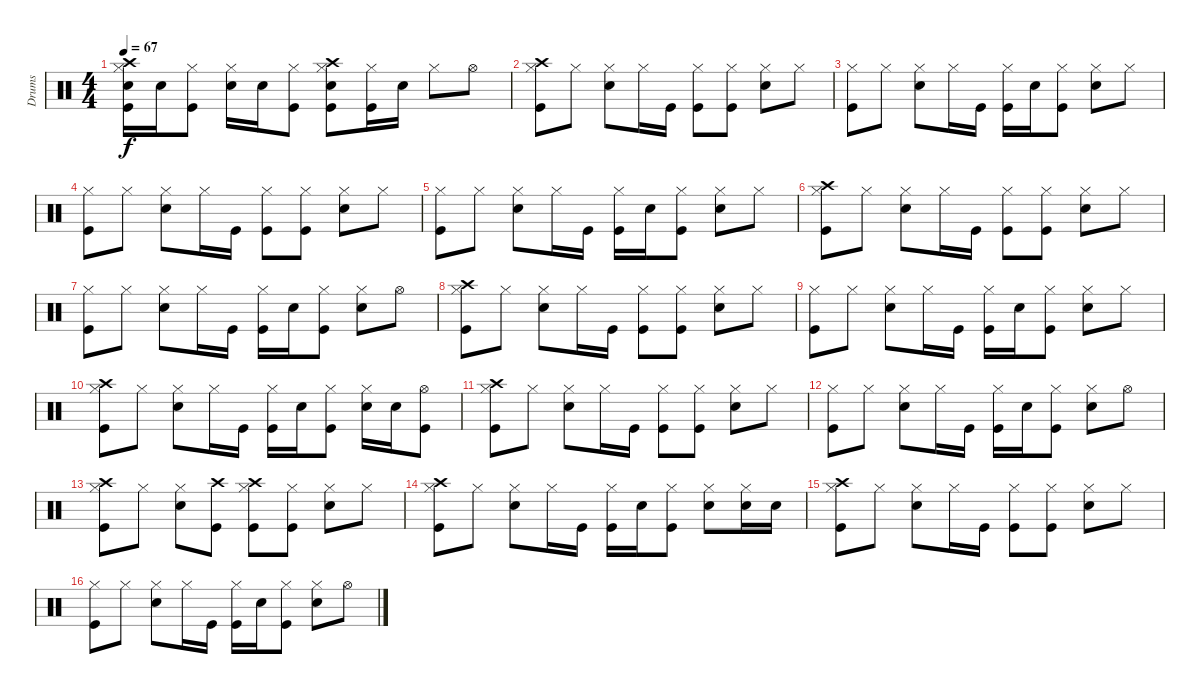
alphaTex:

\track ("Drums" "Drums") {instrument percussion}
\staff {score}
\articulation defaults
\ts (4 4)
\tempo 67
\clef neutral
\ks c
("Crash high (hit)" "Hi-Hat (closed)" "Electric Snare (hit)" "Kick (hit)").16{dy f} "Electric Snare (hit)".16 ("Hi-Hat (closed)" "Kick (hit)").8 ("Hi-Hat (closed)" "Electric Snare (hit)").16 "Electric Snare (hit)".16 ("Hi-Hat (closed)" "Kick (hit)").8 ("Crash high (hit)" "Hi-Hat (closed)" "Electric Snare (hit)" "Kick (hit)").8 ("Hi-Hat (closed)" "Kick (hit)").16 "Electric Snare (hit)".16 "Hi-Hat (closed)".8 "Hi-Hat (open)".8 |
("Crash high (hit)" "Hi-Hat (closed)" "Kick (hit)").8 "Hi-Hat (closed)".8 ("Hi-Hat (closed)" "Electric Snare (hit)").8 "Hi-Hat (closed)".16 "Kick (hit)".16 ("Hi-Hat (closed)" "Kick (hit)").8 ("Hi-Hat (closed)" "Kick (hit)").8 ("Hi-Hat (closed)" "Electric Snare (hit)").8 "Hi-Hat (closed)".8 |
("Hi-Hat (closed)" "Kick (hit)").8 "Hi-Hat (closed)".8 ("Hi-Hat (closed)" "Electric Snare (hit)").8 "Hi-Hat (closed)".16 "Kick (hit)".16 ("Hi-Hat (closed)" "Kick (hit)").16 "Electric Snare (hit)".16 ("Hi-Hat (closed)" "Kick (hit)").8 ("Hi-Hat (closed)" "Electric Snare (hit)").8 "Hi-Hat (closed)".8 |
("Hi-Hat (closed)" "Kick (hit)").8 "Hi-Hat (closed)".8 ("Hi-Hat (closed)" "Electric Snare (hit)").8 "Hi-Hat (closed)".16 "Kick (hit)".16 ("Hi-Hat (closed)" "Kick (hit)").8 ("Hi-Hat (closed)" "Kick (hit)").8 ("Hi-Hat (closed)" "Electric Snare (hit)").8 "Hi-Hat (closed)".8 |
("Hi-Hat (closed)" "Kick (hit)").8 "Hi-Hat (closed)".8 ("Hi-Hat (closed)" "Electric Snare (hit)").8 "Hi-Hat (closed)".16 "Kick (hit)".16 ("Hi-Hat (closed)" "Kick (hit)").16 "Electric Snare (hit)".16 ("Hi-Hat (closed)" "Kick (hit)").8 ("Hi-Hat (closed)" "Electric Snare (hit)").8 "Hi-Hat (closed)".8 |
("Crash high (hit)" "Hi-Hat (closed)" "Kick (hit)").8 "Hi-Hat (closed)".8 ("Hi-Hat (closed)" "Electric Snare (hit)").8 "Hi-Hat (closed)".16 "Kick (hit)".16 ("Hi-Hat (closed)" "Kick (hit)").8 ("Hi-Hat (closed)" "Kick (hit)").8 ("Hi-Hat (closed)" "Electric Snare (hit)").8 "Hi-Hat (closed)".8 |
("Hi-Hat (closed)" "Kick (hit)").8 "Hi-Hat (closed)".8 ("Hi-Hat (closed)" "Electric Snare (hit)").8 "Hi-Hat (closed)".16 "Kick (hit)".16 ("Hi-Hat (closed)" "Kick (hit)").16 "Electric Snare (hit)".16 ("Hi-Hat (closed)" "Kick (hit)").8 ("Hi-Hat (closed)" "Electric Snare (hit)").8 "Hi-Hat (open)".8 |
("Crash high (hit)" "Hi-Hat (closed)" "Kick (hit)").8 "Hi-Hat (closed)".8 ("Hi-Hat (closed)" "Electric Snare (hit)").8 "Hi-Hat (closed)".16 "Kick (hit)".16 ("Hi-Hat (closed)" "Kick (hit)").8 ("Hi-Hat (closed)" "Kick (hit)").8 ("Hi-Hat (closed)" "Electric Snare (hit)").8 "Hi-Hat (closed)".8 |
("Hi-Hat (closed)" "Kick (hit)").8 "Hi-Hat (closed)".8 ("Hi-Hat (closed)" "Electric Snare (hit)").8 "Hi-Hat (closed)".16 "Kick (hit)".16 ("Hi-Hat (closed)" "Kick (hit)").16 "Electric Snare (hit)".16 ("Hi-Hat (closed)" "Kick (hit)").8 ("Hi-Hat (closed)" "Electric Snare (hit)").8 "Hi-Hat (closed)".8 |
("Crash high (hit)" "Hi-Hat (closed)" "Kick (hit)").8 "Hi-Hat (closed)".8 ("Hi-Hat (closed)" "Electric Snare (hit)").8 "Hi-Hat (closed)".16 "Kick (hit)".16 ("Hi-Hat (closed)" "Kick (hit)").16 "Electric Snare (hit)".16 ("Hi-Hat (closed)" "Kick (hit)").8 ("Hi-Hat (closed)" "Electric Snare (hit)").16 "Electric Snare (hit)".16 ("Hi-Hat (open)" "Kick (hit)").8 |
("Crash high (hit)" "Hi-Hat (closed)" "Kick (hit)").8 "Hi-Hat (closed)".8 ("Hi-Hat (closed)" "Electric Snare (hit)").8 "Hi-Hat (closed)".16 "Kick (hit)".16 ("Hi-Hat (closed)" "Kick (hit)").8 ("Hi-Hat (closed)" "Kick (hit)").8 ("Hi-Hat (closed)" "Electric Snare (hit)").8 "Hi-Hat (closed)".8 |
("Hi-Hat (closed)" "Kick (hit)").8 "Hi-Hat (closed)".8 ("Hi-Hat (closed)" "Electric Snare (hit)").8 "Hi-Hat (closed)".16 "Kick (hit)".16 ("Hi-Hat (closed)" "Kick (hit)").16 "Electric Snare (hit)".16 ("Hi-Hat (closed)" "Kick (hit)").8 ("Hi-Hat (closed)" "Electric Snare (hit)").8 "Hi-Hat (open)".8 |
("Crash high (hit)" "Hi-Hat (closed)" "Kick (hit)").8 "Hi-Hat (closed)".8 ("Hi-Hat (closed)" "Electric Snare (hit)").8 ("Crash high (hit)" "Kick (hit)").8 ("Crash high (hit)" "Hi-Hat (closed)" "Kick (hit)").8 ("Hi-Hat (closed)" "Kick (hit)").8 ("Hi-Hat (closed)" "Electric Snare (hit)").8 "Hi-Hat (closed)".8 |
("Crash high (hit)" "Hi-Hat (closed)" "Kick (hit)").8 "Hi-Hat (closed)".8 ("Hi-Hat (closed)" "Electric Snare (hit)").8 "Hi-Hat (closed)".16 "Kick (hit)".16 ("Hi-Hat (closed)" "Kick (hit)").16 "Electric Snare (hit)".16 ("Hi-Hat (closed)" "Kick (hit)").8 ("Hi-Hat (closed)" "Electric Snare (hit)").8 ("Hi-Hat (closed)" "Electric Snare (hit)").16 "Electric Snare (hit)".16 |
("Crash high (hit)" "Hi-Hat (closed)" "Kick (hit)").8 "Hi-Hat (closed)".8 ("Hi-Hat (closed)" "Electric Snare (hit)").8 "Hi-Hat (closed)".16 "Kick (hit)".16 ("Hi-Hat (closed)" "Kick (hit)").8 ("Hi-Hat (closed)" "Kick (hit)").8 ("Hi-Hat (closed)" "Electric Snare (hit)").8 "Hi-Hat (closed)".8 |
("Hi-Hat (closed)" "Kick (hit)").8 "Hi-Hat (closed)".8 ("Hi-Hat (closed)" "Electric Snare (hit)").8 "Hi-Hat (closed)".16 "Kick (hit)".16 ("Hi-Hat (closed)" "Kick (hit)").16 "Electric Snare (hit)".16 ("Hi-Hat (closed)" "Kick (hit)").8 ("Hi-Hat (closed)" "Electric Snare (hit)").8 "Hi-Hat (open)".8
